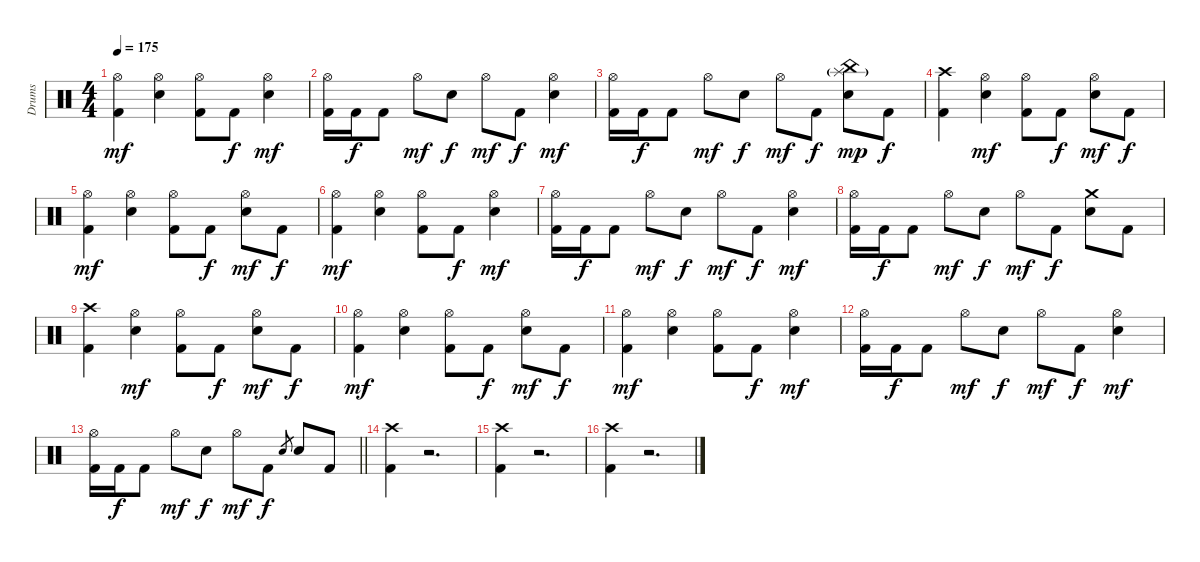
\track ("Drums" "Drums") {instrument percussion}
\staff {score}
\articulation defaults
\ts (4 4)
\tempo 175
\clef neutral
\ks c
("Hi-Hat (open)" "Kick (hit) 2").4{dy mf} ("Hi-Hat (open)" "Electric Snare (hit)").4 ("Hi-Hat (open)" "Kick (hit) 2").8 "Kick (hit) 2".8{dy f} ("Hi-Hat (open)" "Electric Snare (hit)").4{dy mf} |
("Hi-Hat (open)" "Kick (hit) 2").16 "Kick (hit) 2".16{dy f} "Kick (hit) 2".8 "Hi-Hat (open)".8{dy mf} "Electric Snare (hit)".8{dy f} "Hi-Hat (open)".8{dy mf} "Kick (hit) 2".8{dy f} ("Hi-Hat (open)" "Electric Snare (hit)").4{dy mf} |
("Hi-Hat (open)" "Kick (hit) 2").16 "Kick (hit) 2".16{dy f} "Kick (hit) 2".8 "Hi-Hat (open)".8{dy mf} "Electric Snare (hit)".8{dy f} "Hi-Hat (open)".8{dy mf} "Kick (hit) 2".8{dy f} ("China (hit)" "Splash (hit)"{g} "Electric Snare (hit)").8{dy mp} "Kick (hit) 2".8{dy f} |
("Crash high (hit)" "Kick (hit) 2").4 ("Hi-Hat (open)" "Electric Snare (hit)").4{dy mf} ("Hi-Hat (open)" "Kick (hit) 2").8 "Kick (hit) 2".8{dy f} ("Hi-Hat (open)" "Electric Snare (hit)").8{dy mf} "Kick (hit) 2".8{dy f} |
("Hi-Hat (open)" "Kick (hit) 2").4{dy mf} ("Hi-Hat (open)" "Electric Snare (hit)").4 ("Hi-Hat (open)" "Kick (hit) 2").8 "Kick (hit) 2".8{dy f} ("Hi-Hat (open)" "Electric Snare (hit)").8{dy mf} "Kick (hit) 2".8{dy f} |
("Hi-Hat (open)" "Kick (hit) 2").4{dy mf} ("Hi-Hat (open)" "Electric Snare (hit)").4 ("Hi-Hat (open)" "Kick (hit) 2").8 "Kick (hit) 2".8{dy f} ("Hi-Hat (open)" "Electric Snare (hit)").4{dy mf} |
("Hi-Hat (open)" "Kick (hit) 2").16 "Kick (hit) 2".16{dy f} "Kick (hit) 2".8 "Hi-Hat (open)".8{dy mf} "Electric Snare (hit)".8{dy f} "Hi-Hat (open)".8{dy mf} "Kick (hit) 2".8{dy f} ("Hi-Hat (open)" "Electric Snare (hit)").4{dy mf} |
("Hi-Hat (open)" "Kick (hit) 2").16 "Kick (hit) 2".16{dy f} "Kick (hit) 2".8 "Hi-Hat (open)".8{dy mf} "Electric Snare (hit)".8{dy f} "Hi-Hat (open)".8{dy mf} "Kick (hit) 2".8{dy f} ("Crash medium (hit)" "Electric Snare (hit)").8 "Kick (hit) 2".8 |
("Crash high (hit)" "Kick (hit) 2").4 ("Hi-Hat (open)" "Electric Snare (hit)").4{dy mf} ("Hi-Hat (open)" "Kick (hit) 2").8 "Kick (hit) 2".8{dy f} ("Hi-Hat (open)" "Electric Snare (hit)").8{dy mf} "Kick (hit) 2".8{dy f} |
("Hi-Hat (open)" "Kick (hit) 2").4{dy mf} ("Hi-Hat (open)" "Electric Snare (hit)").4 ("Hi-Hat (open)" "Kick (hit) 2").8 "Kick (hit) 2".8{dy f} ("Hi-Hat (open)" "Electric Snare (hit)").8{dy mf} "Kick (hit) 2".8{dy f} |
("Hi-Hat (open)" "Kick (hit) 2").4{dy mf} ("Hi-Hat (open)" "Electric Snare (hit)").4 ("Hi-Hat (open)" "Kick (hit) 2").8 "Kick (hit) 2".8{dy f} ("Hi-Hat (open)" "Electric Snare (hit)").4{dy mf} |
("Hi-Hat (open)" "Kick (hit) 2").16 "Kick (hit) 2".16{dy f} "Kick (hit) 2".8 "Hi-Hat (open)".8{dy mf} "Electric Snare (hit)".8{dy f} "Hi-Hat (open)".8{dy mf} "Kick (hit) 2".8{dy f} ("Hi-Hat (open)" "Electric Snare (hit)").4{dy mf} |
\barLineRight lightlight
("Hi-Hat (open)" "Kick (hit) 2").16 "Kick (hit) 2".16{dy f} "Kick (hit) 2".8 "Hi-Hat (open)".8{dy mf} "Electric Snare (hit)".8{dy f} "Hi-Hat (open)".8{dy mf} "Kick (hit) 2".8{dy f} "Electric Snare (hit)".8{gr} "Electric Snare (hit)".8 "Kick (hit) 2".8 |
("Crash high (hit)" "Kick (hit) 2").4 r.2{d volume 0} |
("Crash high (hit)" "Kick (hit) 2").4{volume 14} r.2{d volume 0} |
("Crash high (hit)" "Kick (hit) 2").4{volume 14} r.2{d volume 0}
